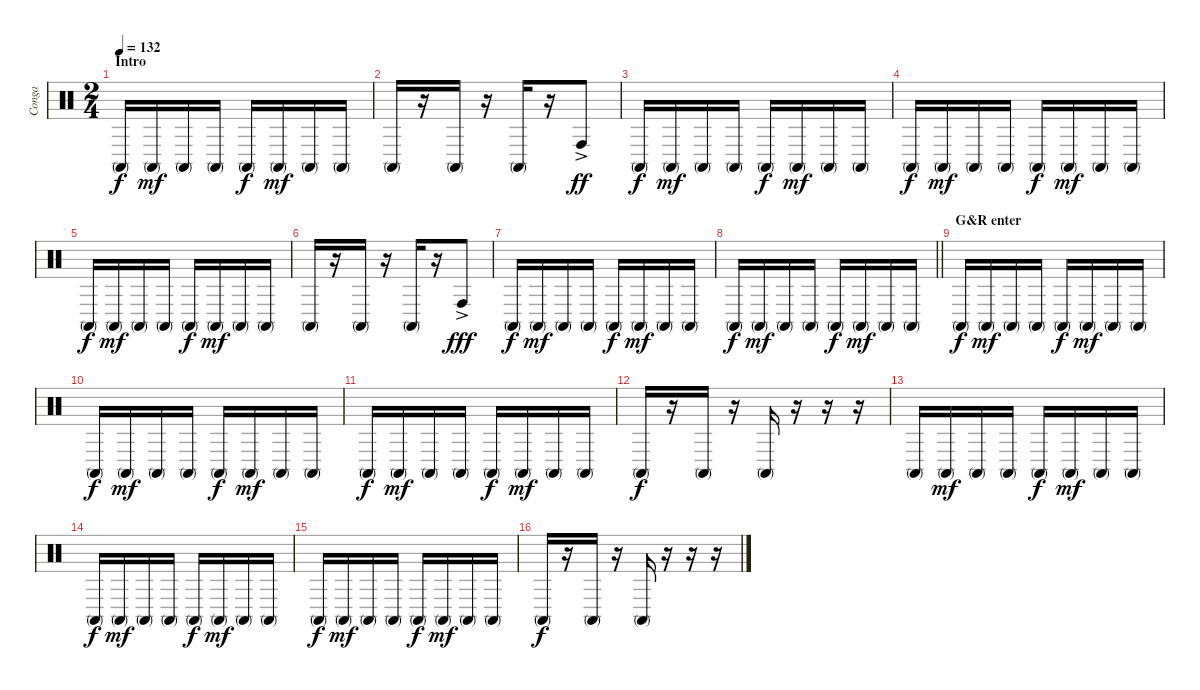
\track ("Conga" "Conga") {instrument percussion}
\staff {score}
\articulation defaults
\ts (2 4)
\section ("" "Intro")
\tempo 132
\clef neutral
\ks c "Conga high (mute)".16{dy f} "Conga high (mute)".16{dy mf} "Conga high (mute)".16 "Conga high (mute)".16 "Conga high (mute)".16{dy f} "Conga high (mute)".16{dy mf} "Conga high (mute)".16 "Conga high (mute)".16
|
"Conga high (mute)".16 r.16 "Conga high (mute)".16 r.16 "Conga high (mute)".16 r.16 "Conga high (hit)"{ac}.8{dy ff} |
"Conga high (mute)".16{dy f} "Conga high (mute)".16{dy mf} "Conga high (mute)".16 "Conga high (mute)".16 "Conga high (mute)".16{dy f} "Conga high (mute)".16{dy mf} "Conga high (mute)".16 "Conga high (mute)".16 |
"Conga high (mute)".16{dy f} "Conga high (mute)".16{dy mf} "Conga high (mute)".16 "Conga high (mute)".16 "Conga high (mute)".16{dy f} "Conga high (mute)".16{dy mf} "Conga high (mute)".16 "Conga high (mute)".16 |
"Conga high (mute)".16{dy f} "Conga high (mute)".16{dy mf} "Conga high (mute)".16 "Conga high (mute)".16 "Conga high (mute)".16{dy f} "Conga high (mute)".16{dy mf} "Conga high (mute)".16 "Conga high (mute)".16 |
"Conga high (mute)".16 r.16 "Conga high (mute)".16 r.16 "Conga high (mute)".16 r.16 "Conga high (hit)"{ac}.8{dy fff} |
"Conga high (mute)".16{dy f} "Conga high (mute)".16{dy mf} "Conga high (mute)".16 "Conga high (mute)".16 "Conga high (mute)".16{dy f} "Conga high (mute)".16{dy mf} "Conga high (mute)".16 "Conga high (mute)".16 |
\barLineRight lightlight "Conga high (mute)".16{dy f} "Conga high (mute)".16{dy mf} "Conga high (mute)".16 "Conga high (mute)".16 "Conga high (mute)".16{dy f} "Conga high (mute)".16{dy mf} "Conga high (mute)".16 "Conga high (mute)".16
|
\section ("" "G&R enter")
"Conga high (mute)".16{dy f} "Conga high (mute)".16{dy mf} "Conga high (mute)".16 "Conga high (mute)".16 "Conga high (mute)".16{dy f} "Conga high (mute)".16{dy mf} "Conga high (mute)".16 "Conga high (mute)".16 |
"Conga high (mute)".16{dy f} "Conga high (mute)".16{dy mf} "Conga high (mute)".16 "Conga high (mute)".16 "Conga high (mute)".16{dy f} "Conga high (mute)".16{dy mf} "Conga high (mute)".16 "Conga high (mute)".16 |
"Conga high (mute)".16{dy f} "Conga high (mute)".16{dy mf} "Conga high (mute)".16 "Conga high (mute)".16 "Conga high (mute)".16{dy f} "Conga high (mute)".16{dy mf} "Conga high (mute)".16 "Conga high (mute)".16 |
"Conga high (mute)".16{dy f} r.16 "Conga high (mute)".16 r.16 "Conga high (mute)".16 r.16 r.16 r.16 |
"Conga high (mute)".16 "Conga high (mute)".16{dy mf} "Conga high (mute)".16 "Conga high (mute)".16 "Conga high (mute)".16{dy f} "Conga high (mute)".16{dy mf} "Conga high (mute)".16 "Conga high (mute)".16 |
"Conga high (mute)".16{dy f} "Conga high (mute)".16{dy mf} "Conga high (mute)".16 "Conga high (mute)".16 "Conga high (mute)".16{dy f} "Conga high (mute)".16{dy mf} "Conga high (mute)".16 "Conga high (mute)".16 |
"Conga high (mute)".16{dy f} "Conga high (mute)".16{dy mf} "Conga high (mute)".16 "Conga high (mute)".16 "Conga high (mute)".16{dy f} "Conga high (mute)".16{dy mf} "Conga high (mute)".16 "Conga high (mute)".16 |
"Conga high (mute)".16{dy f} r.16 "Conga high (mute)".16 r.16 "Conga high (mute)".16 r.16 r.16 r.16
